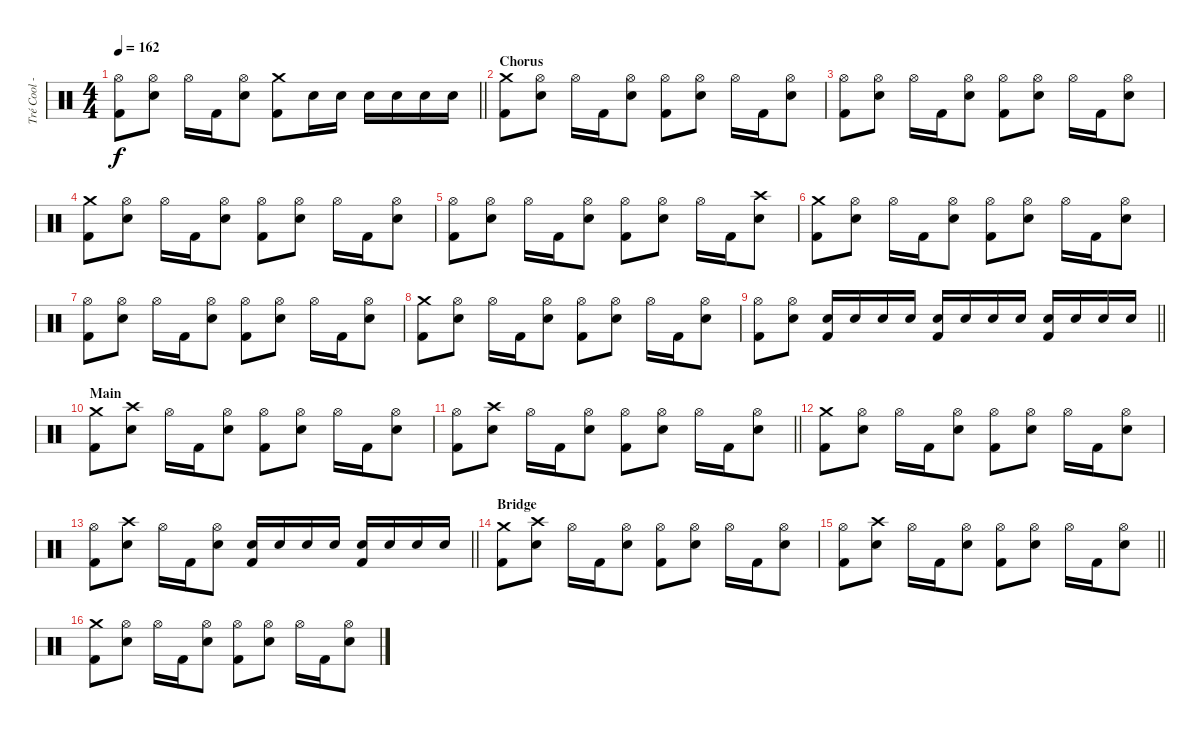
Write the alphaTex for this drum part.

\track ("Tré Cool - Drums" "Tré Cool -") {instrument percussion}
\staff {score}
\articulation defaults
\ts (4 4)
\tempo 162
\clef neutral
\barLineRight lightlight
\ks c
("Hi-Hat (open)" "Kick (hit) 2").8{dy f} ("Hi-Hat (open)" "Electric Snare (hit)").8 "Hi-Hat (open)".16 "Kick (hit) 2".16 ("Hi-Hat (open)" "Electric Snare (hit)").8 ("Crash medium (hit)" "Kick (hit) 2").8 "Electric Snare (hit)".16 "Electric Snare (hit)".16 "Electric Snare (hit)".16 "Electric Snare (hit)".16 "Electric Snare (hit)".16 "Electric Snare (hit)".16 |
\section ("" "Chorus")
("Crash medium (hit)" "Kick (hit) 2").8 ("Hi-Hat (open)" "Electric Snare (hit)").8 "Hi-Hat (open)".16 "Kick (hit) 2".16 ("Hi-Hat (open)" "Electric Snare (hit)").8 ("Hi-Hat (open)" "Kick (hit) 2").8 ("Hi-Hat (open)" "Electric Snare (hit)").8 "Hi-Hat (open)".16 "Kick (hit) 2".16 ("Hi-Hat (open)" "Electric Snare (hit)").8 |
("Hi-Hat (open)" "Kick (hit) 2").8 ("Hi-Hat (open)" "Electric Snare (hit)").8 "Hi-Hat (open)".16 "Kick (hit) 2".16 ("Hi-Hat (open)" "Electric Snare (hit)").8 ("Hi-Hat (open)" "Kick (hit) 2").8 ("Hi-Hat (open)" "Electric Snare (hit)").8 "Hi-Hat (open)".16 "Kick (hit) 2".16 ("Hi-Hat (open)" "Electric Snare (hit)").8 |
("Crash medium (hit)" "Kick (hit) 2").8 ("Hi-Hat (open)" "Electric Snare (hit)").8 "Hi-Hat (open)".16 "Kick (hit) 2".16 ("Hi-Hat (open)" "Electric Snare (hit)").8 ("Hi-Hat (open)" "Kick (hit) 2").8 ("Hi-Hat (open)" "Electric Snare (hit)").8 "Hi-Hat (open)".16 "Kick (hit) 2".16 ("Hi-Hat (open)" "Electric Snare (hit)").8 |
("Hi-Hat (open)" "Kick (hit) 2").8 ("Hi-Hat (open)" "Electric Snare (hit)").8 "Hi-Hat (open)".16 "Kick (hit) 2".16 ("Hi-Hat (open)" "Electric Snare (hit)").8 ("Hi-Hat (open)" "Kick (hit) 2").8 ("Hi-Hat (open)" "Electric Snare (hit)").8 "Hi-Hat (open)".16 "Kick (hit) 2".16 ("Crash high (hit)" "Electric Snare (hit)").8 |
("Crash medium (hit)" "Kick (hit) 2").8 ("Hi-Hat (open)" "Electric Snare (hit)").8 "Hi-Hat (open)".16 "Kick (hit) 2".16 ("Hi-Hat (open)" "Electric Snare (hit)").8 ("Hi-Hat (open)" "Kick (hit) 2").8 ("Hi-Hat (open)" "Electric Snare (hit)").8 "Hi-Hat (open)".16 "Kick (hit) 2".16 ("Hi-Hat (open)" "Electric Snare (hit)").8 |
("Hi-Hat (open)" "Kick (hit) 2").8 ("Hi-Hat (open)" "Electric Snare (hit)").8 "Hi-Hat (open)".16 "Kick (hit) 2".16 ("Hi-Hat (open)" "Electric Snare (hit)").8 ("Hi-Hat (open)" "Kick (hit) 2").8 ("Hi-Hat (open)" "Electric Snare (hit)").8 "Hi-Hat (open)".16 "Kick (hit) 2".16 ("Hi-Hat (open)" "Electric Snare (hit)").8 |
("Crash medium (hit)" "Kick (hit) 2").8 ("Hi-Hat (open)" "Electric Snare (hit)").8 "Hi-Hat (open)".16 "Kick (hit) 2".16 ("Hi-Hat (open)" "Electric Snare (hit)").8 ("Hi-Hat (open)" "Kick (hit) 2").8 ("Hi-Hat (open)" "Electric Snare (hit)").8 "Hi-Hat (open)".16 "Kick (hit) 2".16 ("Hi-Hat (open)" "Electric Snare (hit)").8 |
\barLineRight lightlight
("Hi-Hat (open)" "Kick (hit) 2").8 ("Hi-Hat (open)" "Electric Snare (hit)").8 ("Electric Snare (hit)" "Kick (hit) 2").16 "Electric Snare (hit)".16 "Electric Snare (hit)".16 "Electric Snare (hit)".16 ("Electric Snare (hit)" "Kick (hit) 2").16 "Electric Snare (hit)".16 "Electric Snare (hit)".16 "Electric Snare (hit)".16 ("Electric Snare (hit)" "Kick (hit) 2").16 "Electric Snare (hit)".16 "Electric Snare (hit)".16 "Electric Snare (hit)".16 |
\section ("" "Main")
("Crash medium (hit)" "Kick (hit) 2").8 ("Crash high (hit)" "Electric Snare (hit)").8 "Hi-Hat (open)".16 "Kick (hit) 2".16 ("Hi-Hat (open)" "Electric Snare (hit)").8 ("Hi-Hat (open)" "Kick (hit) 2").8 ("Hi-Hat (open)" "Electric Snare (hit)").8 "Hi-Hat (open)".16 "Kick (hit) 2".16 ("Hi-Hat (open)" "Electric Snare (hit)").8 |
\barLineRight lightlight
("Hi-Hat (open)" "Kick (hit) 2").8 ("Crash high (hit)" "Electric Snare (hit)").8 "Hi-Hat (open)".16 "Kick (hit) 2".16 ("Hi-Hat (open)" "Electric Snare (hit)").8 ("Hi-Hat (open)" "Kick (hit) 2").8 ("Hi-Hat (open)" "Electric Snare (hit)").8 "Hi-Hat (open)".16 "Kick (hit) 2".16 ("Hi-Hat (open)" "Electric Snare (hit)").8 |
("Crash medium (hit)" "Kick (hit) 2").8 ("Hi-Hat (open)" "Electric Snare (hit)").8 "Hi-Hat (open)".16 "Kick (hit) 2".16 ("Hi-Hat (open)" "Electric Snare (hit)").8 ("Hi-Hat (open)" "Kick (hit) 2").8 ("Hi-Hat (open)" "Electric Snare (hit)").8 "Hi-Hat (open)".16 "Kick (hit) 2".16 ("Hi-Hat (open)" "Electric Snare (hit)").8 |
\barLineRight lightlight
("Hi-Hat (open)" "Kick (hit) 2").8 ("Crash high (hit)" "Electric Snare (hit)").8 "Hi-Hat (open)".16 "Kick (hit) 2".16 ("Hi-Hat (open)" "Electric Snare (hit)").8 ("Electric Snare (hit)" "Kick (hit) 2").16 "Electric Snare (hit)".16 "Electric Snare (hit)".16 "Electric Snare (hit)".16 ("Electric Snare (hit)" "Kick (hit) 2").16 "Electric Snare (hit)".16 "Electric Snare (hit)".16 "Electric Snare (hit)".16 |
\section ("" "Bridge")
("Crash medium (hit)" "Kick (hit) 2").8 ("Crash high (hit)" "Electric Snare (hit)").8 "Hi-Hat (open)".16 "Kick (hit) 2".16 ("Hi-Hat (open)" "Electric Snare (hit)").8 ("Hi-Hat (open)" "Kick (hit) 2").8 ("Hi-Hat (open)" "Electric Snare (hit)").8 "Hi-Hat (open)".16 "Kick (hit) 2".16 ("Hi-Hat (open)" "Electric Snare (hit)").8 |
\barLineRight lightlight
("Hi-Hat (open)" "Kick (hit) 2").8 ("Crash high (hit)" "Electric Snare (hit)").8 "Hi-Hat (open)".16 "Kick (hit) 2".16 ("Hi-Hat (open)" "Electric Snare (hit)").8 ("Hi-Hat (open)" "Kick (hit) 2").8 ("Hi-Hat (open)" "Electric Snare (hit)").8 "Hi-Hat (open)".16 "Kick (hit) 2".16 ("Hi-Hat (open)" "Electric Snare (hit)").8 |
("Crash medium (hit)" "Kick (hit) 2").8 ("Hi-Hat (open)" "Electric Snare (hit)").8 "Hi-Hat (open)".16 "Kick (hit) 2".16 ("Hi-Hat (open)" "Electric Snare (hit)").8 ("Hi-Hat (open)" "Kick (hit) 2").8 ("Hi-Hat (open)" "Electric Snare (hit)").8 "Hi-Hat (open)".16 "Kick (hit) 2".16 ("Hi-Hat (open)" "Electric Snare (hit)").8
